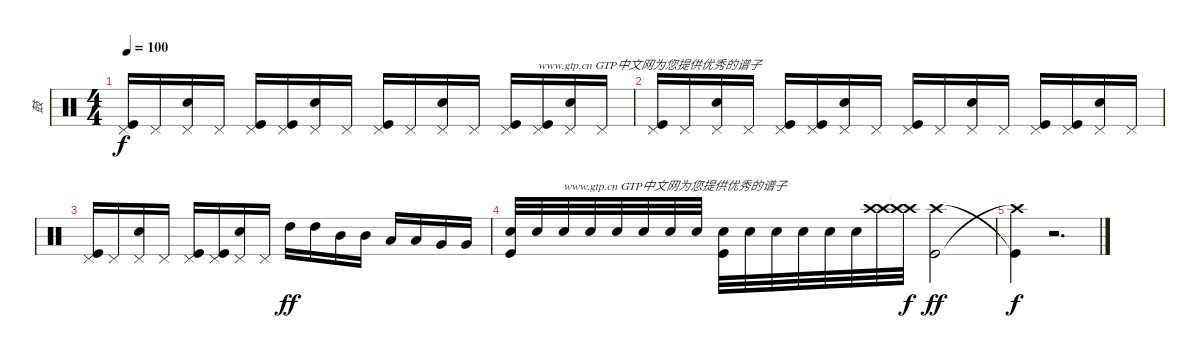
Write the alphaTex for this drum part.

\track ("鼓" "鼓") {instrument percussion}
\staff {score}
\articulation defaults
\ts (4 4)
\tempo 100
\clef neutral
\ks c
("Kick (hit)" "Pedal Hi-Hat (hit)").16{dy f} "Pedal Hi-Hat (hit)".16 ("Snare (hit) 2" "Pedal Hi-Hat (hit)").16 "Pedal Hi-Hat (hit)".16 ("Kick (hit)" "Pedal Hi-Hat (hit)").16 ("Kick (hit)" "Pedal Hi-Hat (hit)").16 ("Snare (hit) 2" "Pedal Hi-Hat (hit)").16 "Pedal Hi-Hat (hit)".16 ("Kick (hit)" "Pedal Hi-Hat (hit)").16 "Pedal Hi-Hat (hit)".16 ("Snare (hit) 2" "Pedal Hi-Hat (hit)").16 "Pedal Hi-Hat (hit)".16 ("Kick (hit)" "Pedal Hi-Hat (hit)").16 ("Kick (hit)" "Pedal Hi-Hat (hit)").16{txt "www.gtp.cn GTP中文网为您提供优秀的谱子"} ("Snare (hit) 2" "Pedal Hi-Hat (hit)").16 "Pedal Hi-Hat (hit)".16 |
("Kick (hit)" "Pedal Hi-Hat (hit)").16 "Pedal Hi-Hat (hit)".16 ("Snare (hit) 2" "Pedal Hi-Hat (hit)").16 "Pedal Hi-Hat (hit)".16 ("Kick (hit)" "Pedal Hi-Hat (hit)").16 ("Kick (hit)" "Pedal Hi-Hat (hit)").16 ("Snare (hit) 2" "Pedal Hi-Hat (hit)").16 "Pedal Hi-Hat (hit)".16 ("Kick (hit)" "Pedal Hi-Hat (hit)").16 "Pedal Hi-Hat (hit)".16 ("Snare (hit) 2" "Pedal Hi-Hat (hit)").16 "Pedal Hi-Hat (hit)".16 ("Kick (hit)" "Pedal Hi-Hat (hit)").16 ("Kick (hit)" "Pedal Hi-Hat (hit)").16 ("Snare (hit) 2" "Pedal Hi-Hat (hit)").16 "Pedal Hi-Hat (hit)".16 |
("Kick (hit)" "Pedal Hi-Hat (hit)").16 "Pedal Hi-Hat (hit)".16 ("Snare (hit) 2" "Pedal Hi-Hat (hit)").16 "Pedal Hi-Hat (hit)".16 ("Kick (hit)" "Pedal Hi-Hat (hit)").16 ("Kick (hit)" "Pedal Hi-Hat (hit)").16 ("Snare (hit) 2" "Pedal Hi-Hat (hit)").16 "Pedal Hi-Hat (hit)".16 "High Tom (hit)".16{dy ff} "High Tom (hit)".16 "Mid Tom (hit)".16 "Mid Tom (hit)".16 "Low Tom (hit)".16 "Low Tom (hit)".16 "Very Low Tom (hit)".16 "Very Low Tom (hit)".16 |
("Kick (hit)" "Snare (hit) 2").32 "Snare (hit) 2".32 "Snare (hit) 2".32{txt "www.gtp.cn GTP中文网为您提供优秀的谱子"} "Snare (hit) 2".32 "Snare (hit) 2".32 "Snare (hit) 2".32 "Snare (hit) 2".32 "Snare (hit) 2".32 ("Snare (hit) 2" "Kick (hit)").32 "Snare (hit) 2".32 "Snare (hit) 2".32 "Snare (hit) 2".32 "Snare (hit) 2".32 "Snare (hit) 2".32 ("Crash high (hit)" "Crash high (hit)").32 ("Crash high (hit)"{t} "Crash high (hit)"{t}).32{dy f} ("Kick (hit)" "Crash high (hit)").2{dy ff} |
("Crash high (hit)"{t} "Kick (hit)"{t}).4{dy f} r.2{d}
